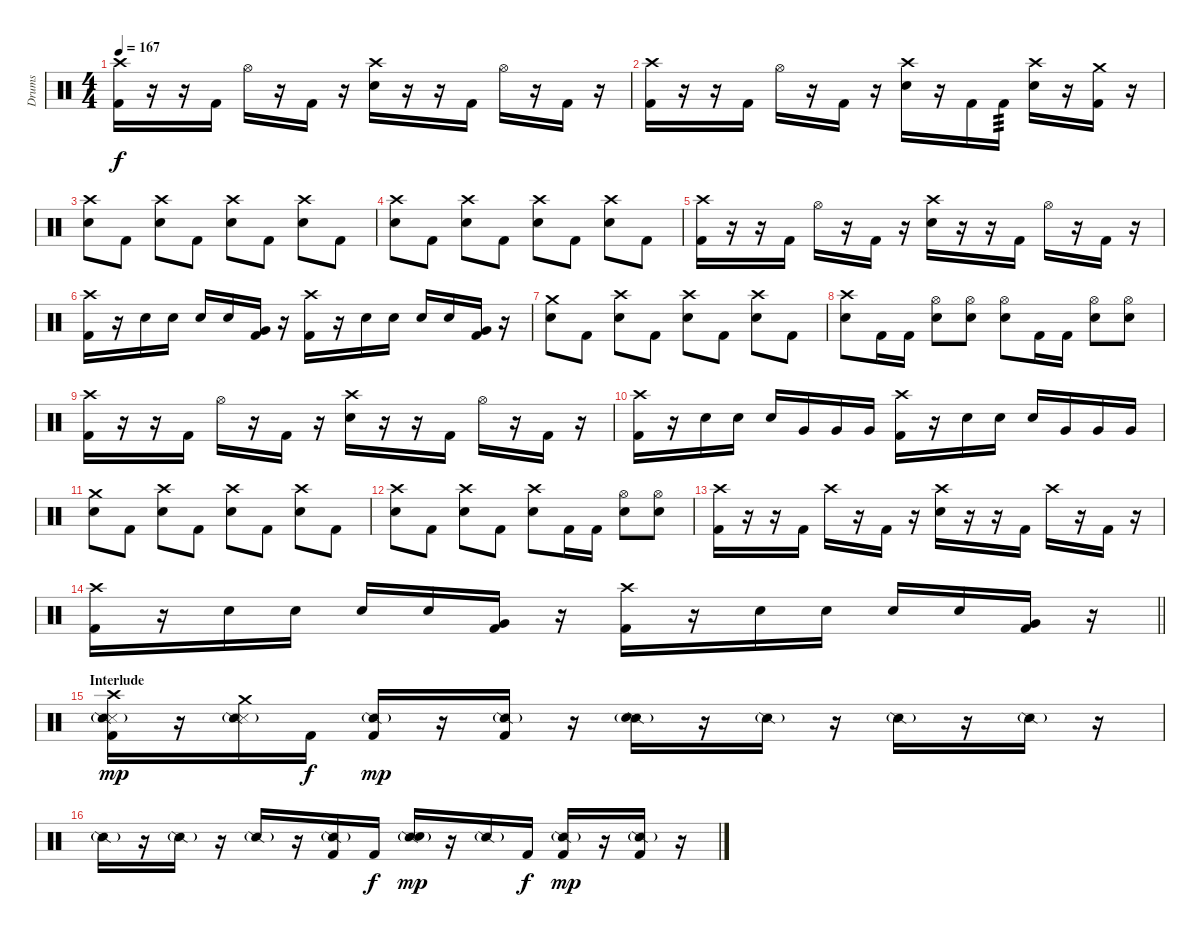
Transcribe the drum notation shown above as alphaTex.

\track ("Drums" "Drums") {instrument percussion}
\staff {score}
\articulation defaults
\ts (4 4)
\tempo 167
\clef neutral
\ks c
("Crash high (hit)" "Kick (hit) 2").16{dy f} r.16 r.16 "Kick (hit) 2".16 "Hi-Hat (open)".16 r.16 "Kick (hit) 2".16 r.16 ("Crash high (hit)" "Electric Snare (hit)").16 r.16 r.16 "Kick (hit) 2".16 "Hi-Hat (open)".16 r.16 "Kick (hit) 2".16 r.16 |
("Crash high (hit)" "Kick (hit) 2").16 r.16 r.16 "Kick (hit) 2".16 "Hi-Hat (open)".16 r.16 "Kick (hit) 2".16 r.16 ("Crash high (hit)" "Electric Snare (hit)").16 r.16 "Kick (hit) 2".16 "Kick (hit) 2".16{tp 3} ("Crash high (hit)" "Electric Snare (hit)").16 r.16 ("Crash medium (hit)" "Kick (hit) 2").16 r.16 |
("Crash high (hit)" "Electric Snare (hit)").8 "Kick (hit) 2".8 ("Crash high (hit)" "Electric Snare (hit)").8 "Kick (hit) 2".8 ("Crash high (hit)" "Electric Snare (hit)").8 "Kick (hit) 2".8 ("Crash high (hit)" "Electric Snare (hit)").8 "Kick (hit) 2".8 |
("Crash high (hit)" "Electric Snare (hit)").8 "Kick (hit) 2".8 ("Crash high (hit)" "Electric Snare (hit)").8 "Kick (hit) 2".8 ("Crash high (hit)" "Electric Snare (hit)").8 "Kick (hit) 2".8 ("Crash high (hit)" "Electric Snare (hit)").8 "Kick (hit) 2".8 |
("Crash high (hit)" "Kick (hit) 2").16 r.16 r.16 "Kick (hit) 2".16 "Hi-Hat (open)".16 r.16 "Kick (hit) 2".16 r.16 ("Crash high (hit)" "Electric Snare (hit)").16 r.16 r.16 "Kick (hit) 2".16 "Hi-Hat (open)".16 r.16 "Kick (hit) 2".16 r.16 |
("Crash high (hit)" "Kick (hit) 2").16 r.16 "Electric Snare (hit)".16 "Electric Snare (hit)".16 "Electric Snare (hit)".16 "Electric Snare (hit)".16 ("Very Low Tom (hit)" "Kick (hit) 2").16 r.16 ("Crash high (hit)" "Kick (hit) 2").16 r.16 "Electric Snare (hit)".16 "Electric Snare (hit)".16 "Electric Snare (hit)".16 "Electric Snare (hit)".16 ("Very Low Tom (hit)" "Kick (hit) 2").16 r.16 |
("Crash medium (hit)" "Electric Snare (hit)").8 "Kick (hit) 2".8 ("Crash high (hit)" "Electric Snare (hit)").8 "Kick (hit) 2".8 ("Crash high (hit)" "Electric Snare (hit)").8 "Kick (hit) 2".8 ("Crash high (hit)" "Electric Snare (hit)").8 "Kick (hit) 2".8 |
("Crash high (hit)" "Electric Snare (hit)").8 "Kick (hit) 2".16 "Kick (hit) 2".16 ("Hi-Hat (open)" "Electric Snare (hit)").8 ("Hi-Hat (open)" "Electric Snare (hit)").8 ("Hi-Hat (open)" "Electric Snare (hit)").8 "Kick (hit) 2".16 "Kick (hit) 2".16 ("Hi-Hat (open)" "Electric Snare (hit)").8 ("Hi-Hat (open)" "Electric Snare (hit)").8 |
("Crash high (hit)" "Kick (hit) 2").16 r.16 r.16 "Kick (hit) 2".16 "Hi-Hat (open)".16 r.16 "Kick (hit) 2".16 r.16 ("Crash high (hit)" "Electric Snare (hit)").16 r.16 r.16 "Kick (hit) 2".16 "Hi-Hat (open)".16 r.16 "Kick (hit) 2".16 r.16 |
("Crash high (hit)" "Kick (hit) 2").16 r.16 "Electric Snare (hit)".16 "Electric Snare (hit)".16 "Electric Snare (hit)".16 "Very Low Tom (hit)".16 "Very Low Tom (hit)".16 "Very Low Tom (hit)".16 ("Crash high (hit)" "Kick (hit) 2").16 r.16 "Electric Snare (hit)".16 "Electric Snare (hit)".16 "Electric Snare (hit)".16 "Very Low Tom (hit)".16 "Very Low Tom (hit)".16 "Very Low Tom (hit)".16 |
("Crash medium (hit)" "Electric Snare (hit)").8 "Kick (hit) 2".8 ("Crash high (hit)" "Electric Snare (hit)").8 "Kick (hit) 2".8 ("Crash high (hit)" "Electric Snare (hit)").8 "Kick (hit) 2".8 ("Crash high (hit)" "Electric Snare (hit)").8 "Kick (hit) 2".8 |
("Crash high (hit)" "Electric Snare (hit)").8 "Kick (hit) 2".8 ("Crash high (hit)" "Electric Snare (hit)").8 "Kick (hit) 2".8 ("Crash high (hit)" "Electric Snare (hit)").8 "Kick (hit) 2".16 "Kick (hit) 2".16 ("Hi-Hat (open)" "Electric Snare (hit)").8 ("Hi-Hat (open)" "Electric Snare (hit)").8 |
("Crash high (hit)" "Kick (hit) 2").16 r.16 r.16 "Kick (hit) 2".16 "Crash high (hit)".16 r.16 "Kick (hit) 2".16 r.16 ("Crash high (hit)" "Electric Snare (hit)").16 r.16 r.16 "Kick (hit) 2".16 "Crash high (hit)".16 r.16 "Kick (hit) 2".16 r.16 |
\barLineRight lightlight
("Crash high (hit)" "Kick (hit) 2").16 r.16 "Electric Snare (hit)".16 "Electric Snare (hit)".16 "Electric Snare (hit)".16 "Electric Snare (hit)".16 ("Very Low Tom (hit)" "Kick (hit) 2").16 r.16 ("Crash high (hit)" "Kick (hit) 2").16 r.16 "Electric Snare (hit)".16 "Electric Snare (hit)".16 "Electric Snare (hit)".16 "Electric Snare (hit)".16 ("Very Low Tom (hit)" "Kick (hit) 2").16 r.16 |
\section ("" "Interlude")
("Crash high (hit)" "Snare (side stick) 3" "Snare (side stick) 2"{g} "Kick (hit) 2").16{dy mp} r.16 ("Crash medium (hit)" "Snare (side stick) 3" "Snare (side stick) 2"{g}).16 "Kick (hit) 2".16{dy f} ("Snare (side stick) 2"{g} "Kick (hit) 2").16{dy mp} r.16 ("Snare (side stick) 2"{g} "Kick (hit) 2").16 r.16 ("Snare (side stick) 2"{g} "Electric Snare (hit)").16 r.16 "Snare (side stick) 2"{g}.16 r.16 "Snare (side stick) 2"{g}.16 r.16 "Snare (side stick) 2"{g}.16 r.16 |
"Snare (side stick) 2"{g}.16 r.16 "Snare (side stick) 2"{g}.16 r.16 "Snare (side stick) 2"{g}.16 r.16 ("Snare (side stick) 2"{g} "Kick (hit) 2").16 "Kick (hit) 2".16{dy f} ("Snare (side stick) 2"{g} "Electric Snare (hit)").16{dy mp} r.16 "Snare (side stick) 2"{g}.16 "Kick (hit) 2".16{dy f} ("Snare (side stick) 2"{g} "Kick (hit) 2").16{dy mp} r.16 ("Snare (side stick) 2"{g} "Kick (hit) 2").16 r.16
